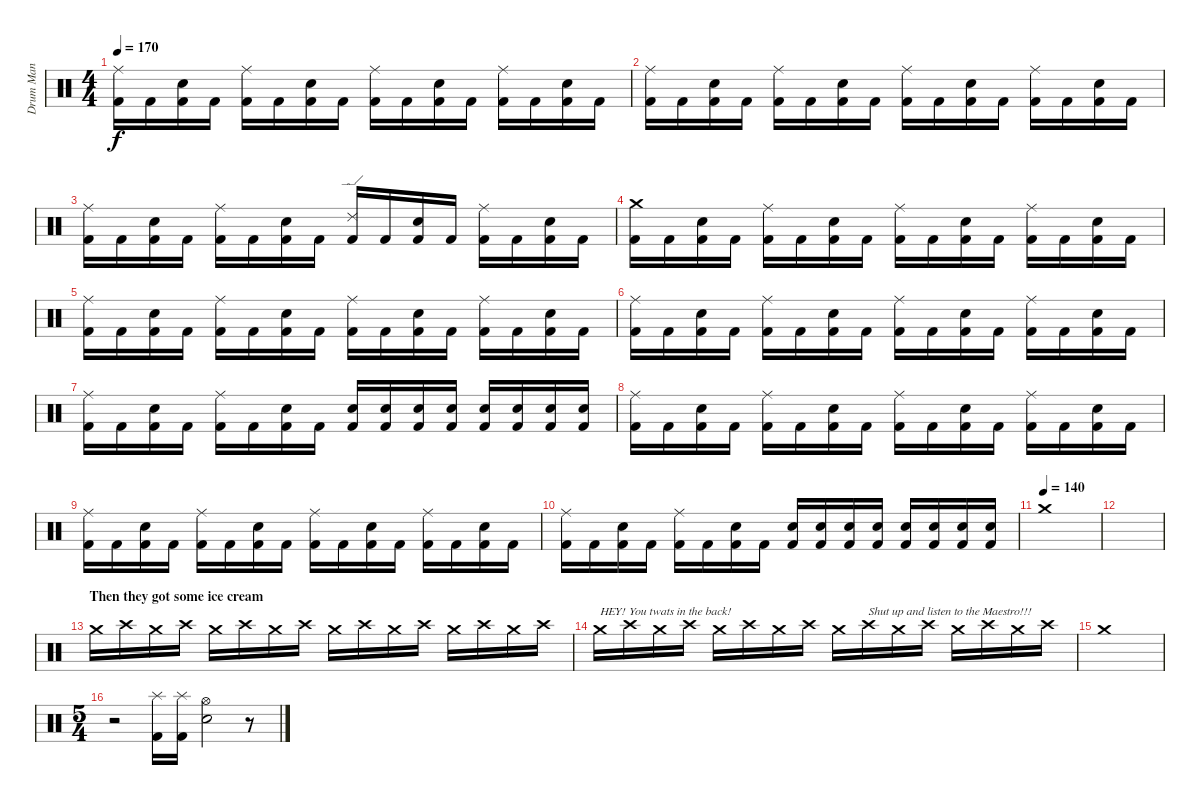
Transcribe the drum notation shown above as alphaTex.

\track ("Drum Man" "Drum Man") {instrument percussion}
\staff {score}
\articulation defaults
\ts (4 4)
\tempo 170
\clef neutral
\ks c
("Ride (middle)" "Kick (hit) 2").16{dy f} "Kick (hit) 2".16 ("Snare (hit) 2" "Kick (hit) 2").16 "Kick (hit) 2".16 ("Ride (middle)" "Kick (hit) 2").16 "Kick (hit) 2".16 ("Snare (hit) 2" "Kick (hit) 2").16 "Kick (hit) 2".16 ("Ride (middle)" "Kick (hit) 2").16 "Kick (hit) 2".16 ("Snare (hit) 2" "Kick (hit) 2").16 "Kick (hit) 2".16 ("Ride (middle)" "Kick (hit) 2").16 "Kick (hit) 2".16 ("Snare (hit) 2" "Kick (hit) 2").16 "Kick (hit) 2".16 |
("Ride (middle)" "Kick (hit) 2").16 "Kick (hit) 2".16 ("Snare (hit) 2" "Kick (hit) 2").16 "Kick (hit) 2".16 ("Ride (middle)" "Kick (hit) 2").16 "Kick (hit) 2".16 ("Snare (hit) 2" "Kick (hit) 2").16 "Kick (hit) 2".16 ("Ride (middle)" "Kick (hit) 2").16 "Kick (hit) 2".16 ("Snare (hit) 2" "Kick (hit) 2").16 "Kick (hit) 2".16 ("Ride (middle)" "Kick (hit) 2").16 "Kick (hit) 2".16 ("Snare (hit) 2" "Kick (hit) 2").16 "Kick (hit) 2".16 |
("Ride (middle)" "Kick (hit) 2").16 "Kick (hit) 2".16 ("Snare (hit) 2" "Kick (hit) 2").16 "Kick (hit) 2".16 ("Ride (middle)" "Kick (hit) 2").16 "Kick (hit) 2".16 ("Snare (hit) 2" "Kick (hit) 2").16 "Kick (hit) 2".16 ("Ride (edge) 2" "Kick (hit) 2").16 "Kick (hit) 2".16 ("Snare (hit) 2" "Kick (hit) 2").16 "Kick (hit) 2".16 ("Ride (middle)" "Kick (hit) 2").16 "Kick (hit) 2".16 ("Snare (hit) 2" "Kick (hit) 2").16 "Kick (hit) 2".16 |
("Crash medium (hit)" "Kick (hit) 2").16 "Kick (hit) 2".16 ("Snare (hit) 2" "Kick (hit) 2").16 "Kick (hit) 2".16 ("Ride (middle)" "Kick (hit) 2").16 "Kick (hit) 2".16 ("Snare (hit) 2" "Kick (hit) 2").16 "Kick (hit) 2".16 ("Ride (middle)" "Kick (hit) 2").16 "Kick (hit) 2".16 ("Snare (hit) 2" "Kick (hit) 2").16 "Kick (hit) 2".16 ("Ride (middle)" "Kick (hit) 2").16 "Kick (hit) 2".16 ("Snare (hit) 2" "Kick (hit) 2").16 "Kick (hit) 2".16 |
("Ride (middle)" "Kick (hit) 2").16 "Kick (hit) 2".16 ("Snare (hit) 2" "Kick (hit) 2").16 "Kick (hit) 2".16 ("Ride (middle)" "Kick (hit) 2").16 "Kick (hit) 2".16 ("Snare (hit) 2" "Kick (hit) 2").16 "Kick (hit) 2".16 ("Ride (middle)" "Kick (hit) 2").16 "Kick (hit) 2".16 ("Snare (hit) 2" "Kick (hit) 2").16 "Kick (hit) 2".16 ("Ride (middle)" "Kick (hit) 2").16 "Kick (hit) 2".16 ("Snare (hit) 2" "Kick (hit) 2").16 "Kick (hit) 2".16 |
("Ride (middle)" "Kick (hit) 2").16 "Kick (hit) 2".16 ("Snare (hit) 2" "Kick (hit) 2").16 "Kick (hit) 2".16 ("Ride (middle)" "Kick (hit) 2").16 "Kick (hit) 2".16 ("Snare (hit) 2" "Kick (hit) 2").16 "Kick (hit) 2".16 ("Ride (middle)" "Kick (hit) 2").16 "Kick (hit) 2".16 ("Snare (hit) 2" "Kick (hit) 2").16 "Kick (hit) 2".16 ("Ride (middle)" "Kick (hit) 2").16 "Kick (hit) 2".16 ("Snare (hit) 2" "Kick (hit) 2").16 "Kick (hit) 2".16 |
("Ride (middle)" "Kick (hit) 2").16 "Kick (hit) 2".16 ("Snare (hit) 2" "Kick (hit) 2").16 "Kick (hit) 2".16 ("Ride (middle)" "Kick (hit) 2").16 "Kick (hit) 2".16 ("Snare (hit) 2" "Kick (hit) 2").16 "Kick (hit) 2".16 ("Electric Snare (hit)" "Kick (hit) 2").16 ("Electric Snare (hit)" "Kick (hit) 2").16 ("Electric Snare (hit)" "Kick (hit) 2").16 ("Electric Snare (hit)" "Kick (hit) 2").16 ("Electric Snare (hit)" "Kick (hit) 2").16 ("Electric Snare (hit)" "Kick (hit) 2").16 ("Electric Snare (hit)" "Kick (hit) 2").16 ("Electric Snare (hit)" "Kick (hit) 2").16 |
("Ride (middle)" "Kick (hit) 2").16 "Kick (hit) 2".16 ("Snare (hit) 2" "Kick (hit) 2").16 "Kick (hit) 2".16 ("Ride (middle)" "Kick (hit) 2").16 "Kick (hit) 2".16 ("Snare (hit) 2" "Kick (hit) 2").16 "Kick (hit) 2".16 ("Ride (middle)" "Kick (hit) 2").16 "Kick (hit) 2".16 ("Snare (hit) 2" "Kick (hit) 2").16 "Kick (hit) 2".16 ("Ride (middle)" "Kick (hit) 2").16 "Kick (hit) 2".16 ("Snare (hit) 2" "Kick (hit) 2").16 "Kick (hit) 2".16 |
("Ride (middle)" "Kick (hit) 2").16 "Kick (hit) 2".16 ("Snare (hit) 2" "Kick (hit) 2").16 "Kick (hit) 2".16 ("Ride (middle)" "Kick (hit) 2").16 "Kick (hit) 2".16 ("Snare (hit) 2" "Kick (hit) 2").16 "Kick (hit) 2".16 ("Ride (middle)" "Kick (hit) 2").16 "Kick (hit) 2".16 ("Snare (hit) 2" "Kick (hit) 2").16 "Kick (hit) 2".16 ("Ride (middle)" "Kick (hit) 2").16 "Kick (hit) 2".16 ("Snare (hit) 2" "Kick (hit) 2").16 "Kick (hit) 2".16 |
("Ride (middle)" "Kick (hit) 2").16 "Kick (hit) 2".16 ("Snare (hit) 2" "Kick (hit) 2").16 "Kick (hit) 2".16 ("Ride (middle)" "Kick (hit) 2").16 "Kick (hit) 2".16 ("Snare (hit) 2" "Kick (hit) 2").16 "Kick (hit) 2".16 ("Electric Snare (hit)" "Kick (hit) 2").16 ("Electric Snare (hit)" "Kick (hit) 2").16 ("Electric Snare (hit)" "Kick (hit) 2").16 ("Electric Snare (hit)" "Kick (hit) 2").16 ("Electric Snare (hit)" "Kick (hit) 2").16 ("Electric Snare (hit)" "Kick (hit) 2").16 ("Electric Snare (hit)" "Kick (hit) 2").16 ("Electric Snare (hit)" "Kick (hit) 2").16 |
\tempo (140)
"Crash medium (hit)".1 |
|
\section ("" "Then they got some ice cream")
"Crash medium (hit)".16 "Crash high (hit)".16 "Crash medium (hit)".16 "Crash high (hit)".16 "Crash medium (hit)".16 "Crash high (hit)".16 "Crash medium (hit)".16 "Crash high (hit)".16 "Crash medium (hit)".16 "Crash high (hit)".16 "Crash medium (hit)".16 "Crash high (hit)".16 "Crash medium (hit)".16 "Crash high (hit)".16 "Crash medium (hit)".16 "Crash high (hit)".16 |
"Crash medium (hit)".16{txt "HEY! You twats in the back!"} "Crash high (hit)".16 "Crash medium (hit)".16 "Crash high (hit)".16 "Crash medium (hit)".16 "Crash high (hit)".16 "Crash medium (hit)".16 "Crash high (hit)".16 "Crash medium (hit)".16 "Crash high (hit)".16{txt "Shut up and listen to the Maestro!!!"} "Crash medium (hit)".16 "Crash high (hit)".16 "Crash medium (hit)".16 "Crash high (hit)".16 "Crash medium (hit)".16 "Crash high (hit)".16 |
"Crash medium (hit)".1 |
\ts (5 4)
r.2 ("Splash (hit)" "Kick (hit) 2").16 ("Splash (hit)" "Kick (hit) 2").16 ("Hi-Hat (open)" "Electric Snare (hit)").2 r.8
